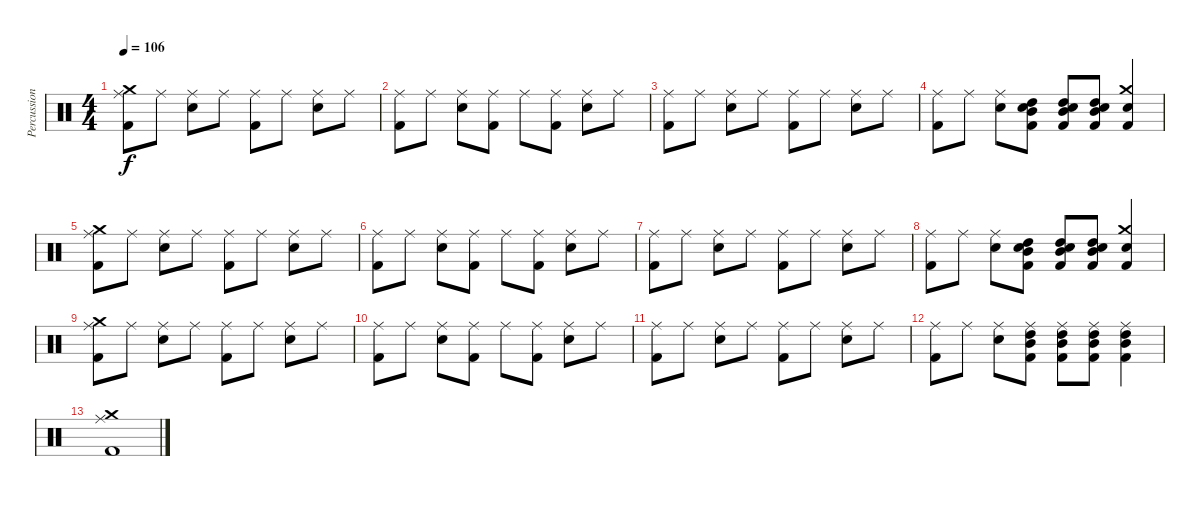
\track ("Percussion" "Percussion") {instrument percussion}
\staff {score}
\articulation defaults
\ts (4 4)
\tempo 106
\clef neutral
\ks c
("Ride (middle)" "Kick (hit) 2" "Crash medium (hit)").8{dy f} "Ride (middle)".8 ("Ride (middle)" "Electric Snare (hit)").8 "Ride (middle)".8 ("Ride (middle)" "Kick (hit) 2").8 "Ride (middle)".8 ("Ride (middle)" "Electric Snare (hit)").8 "Ride (middle)".8 |
("Ride (middle)" "Kick (hit) 2").8 "Ride (middle)".8 ("Ride (middle)" "Electric Snare (hit)").8 ("Ride (middle)" "Kick (hit) 2").8 "Ride (middle)".8 ("Ride (middle)" "Kick (hit) 2").8 ("Ride (middle)" "Electric Snare (hit)").8 "Ride (middle)".8 |
("Ride (middle)" "Kick (hit) 2").8 "Ride (middle)".8 ("Ride (middle)" "Electric Snare (hit)").8 "Ride (middle)".8 ("Ride (middle)" "Kick (hit) 2").8 "Ride (middle)".8 ("Ride (middle)" "Electric Snare (hit)").8 "Ride (middle)".8 |
("Ride (middle)" "Kick (hit) 2").8 "Ride (middle)".8 ("Ride (middle)" "Snare (hit) 2").8 ("Electric Snare (hit)" "Kick (hit) 2" "High Tom (hit)" "Mid Tom (hit)").8 ("Electric Snare (hit)" "Kick (hit) 2" "High Tom (hit)" "Mid Tom (hit)").8 ("Electric Snare (hit)" "Kick (hit) 2" "High Tom (hit)" "Mid Tom (hit)").8 ("Electric Snare (hit)" "Kick (hit) 2" "Crash medium (hit)").4 |
("Ride (middle)" "Kick (hit) 2" "Crash medium (hit)").8 "Ride (middle)".8 ("Ride (middle)" "Electric Snare (hit)").8 "Ride (middle)".8 ("Ride (middle)" "Kick (hit) 2").8 "Ride (middle)".8 ("Ride (middle)" "Electric Snare (hit)").8 "Ride (middle)".8 |
("Ride (middle)" "Kick (hit) 2").8 "Ride (middle)".8 ("Ride (middle)" "Electric Snare (hit)").8 ("Ride (middle)" "Kick (hit) 2").8 "Ride (middle)".8 ("Ride (middle)" "Kick (hit) 2").8 ("Ride (middle)" "Electric Snare (hit)").8 "Ride (middle)".8 |
("Ride (middle)" "Kick (hit) 2").8 "Ride (middle)".8 ("Ride (middle)" "Electric Snare (hit)").8 "Ride (middle)".8 ("Ride (middle)" "Kick (hit) 2").8 "Ride (middle)".8 ("Ride (middle)" "Electric Snare (hit)").8 "Ride (middle)".8 |
("Ride (middle)" "Kick (hit) 2").8 "Ride (middle)".8 ("Ride (middle)" "Snare (hit) 2").8 ("Electric Snare (hit)" "Kick (hit) 2" "High Tom (hit)" "Mid Tom (hit)").8 ("Electric Snare (hit)" "Kick (hit) 2" "High Tom (hit)" "Mid Tom (hit)").8 ("Electric Snare (hit)" "Kick (hit) 2" "High Tom (hit)" "Mid Tom (hit)").8 ("Electric Snare (hit)" "Kick (hit) 2" "Crash medium (hit)").4 |
("Ride (middle)" "Kick (hit) 2" "Crash medium (hit)").8 "Ride (middle)".8 ("Ride (middle)" "Electric Snare (hit)").8 "Ride (middle)".8 ("Ride (middle)" "Kick (hit) 2").8 "Ride (middle)".8 ("Ride (middle)" "Electric Snare (hit)").8 "Ride (middle)".8 |
("Ride (middle)" "Kick (hit) 2").8 "Ride (middle)".8 ("Ride (middle)" "Electric Snare (hit)").8 ("Ride (middle)" "Kick (hit) 2").8 "Ride (middle)".8 ("Ride (middle)" "Kick (hit) 2").8 ("Ride (middle)" "Electric Snare (hit)").8 "Ride (middle)".8 |
("Ride (middle)" "Kick (hit) 2").8 "Ride (middle)".8 ("Ride (middle)" "Electric Snare (hit)").8 "Ride (middle)".8 ("Ride (middle)" "Kick (hit) 2").8 "Ride (middle)".8 ("Ride (middle)" "Electric Snare (hit)").8 "Ride (middle)".8 |
("Ride (middle)" "Kick (hit) 2").8 "Ride (middle)".8 ("Ride (middle)" "Electric Snare (hit)").8 ("Ride (middle)" "Kick (hit) 2" "High Tom (hit)" "Mid Tom (hit)").8 ("Ride (middle)" "Kick (hit) 2" "High Tom (hit)" "Mid Tom (hit)").8 ("Ride (middle)" "Kick (hit) 2" "High Tom (hit)" "Mid Tom (hit)").8 ("Ride (middle)" "Kick (hit) 2" "High Tom (hit)" "Mid Tom (hit)").4 |
("Kick (hit) 2" "Crash medium (hit)" "Ride (middle)").1
